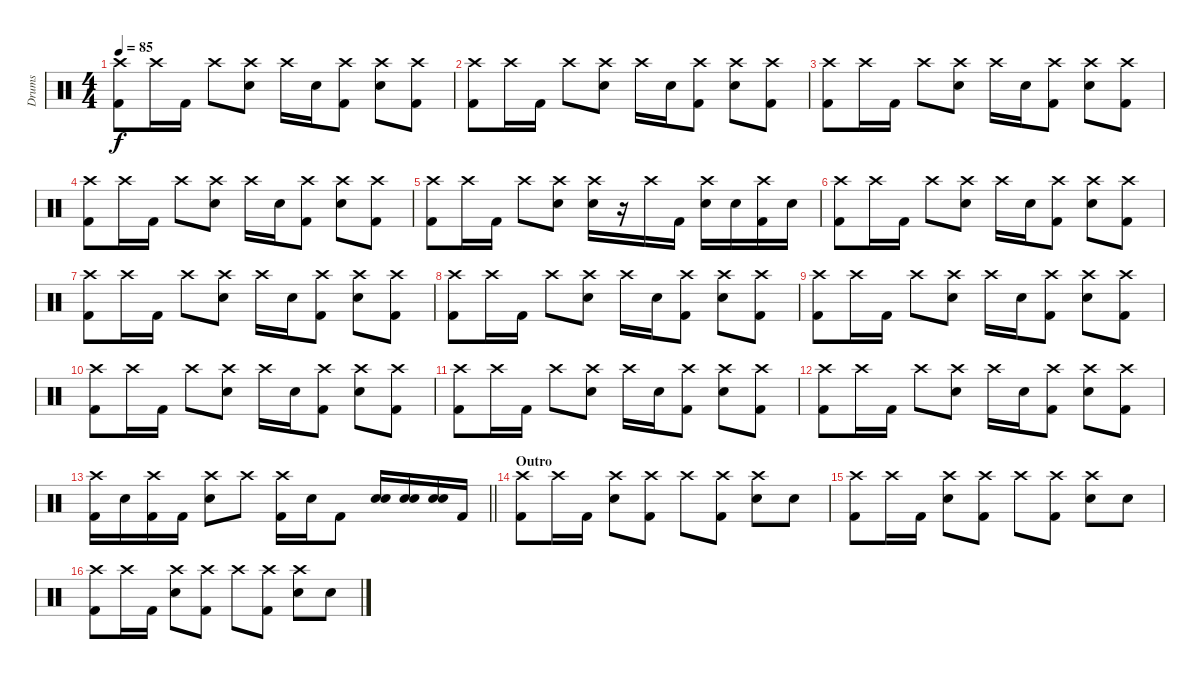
\track ("Drums" "Drums") {instrument percussion}
\staff {score}
\articulation defaults
\ts (4 4)
\tempo 85
\clef neutral
\ks c
("Crash high (hit)" "Kick (hit) 2").8{dy f} "Crash high (hit)".16 "Kick (hit) 2".16 "Crash high (hit)".8 ("Crash high (hit)" "Electric Snare (hit)").8 "Crash high (hit)".16 "Electric Snare (hit)".16 ("Crash high (hit)" "Kick (hit) 2").8 ("Crash high (hit)" "Electric Snare (hit)").8 ("Crash high (hit)" "Kick (hit) 2").8 |
("Crash high (hit)" "Kick (hit) 2").8 "Crash high (hit)".16 "Kick (hit) 2".16 "Crash high (hit)".8 ("Crash high (hit)" "Electric Snare (hit)").8 "Crash high (hit)".16 "Electric Snare (hit)".16 ("Crash high (hit)" "Kick (hit) 2").8 ("Crash high (hit)" "Electric Snare (hit)").8 ("Crash high (hit)" "Kick (hit) 2").8 |
("Crash high (hit)" "Kick (hit) 2").8 "Crash high (hit)".16 "Kick (hit) 2".16 "Crash high (hit)".8 ("Crash high (hit)" "Electric Snare (hit)").8 "Crash high (hit)".16 "Electric Snare (hit)".16 ("Crash high (hit)" "Kick (hit) 2").8 ("Crash high (hit)" "Electric Snare (hit)").8 ("Crash high (hit)" "Kick (hit) 2").8 |
("Crash high (hit)" "Kick (hit) 2").8 "Crash high (hit)".16 "Kick (hit) 2".16 "Crash high (hit)".8 ("Crash high (hit)" "Electric Snare (hit)").8 "Crash high (hit)".16 "Electric Snare (hit)".16 ("Crash high (hit)" "Kick (hit) 2").8 ("Crash high (hit)" "Electric Snare (hit)").8 ("Crash high (hit)" "Kick (hit) 2").8 |
("Crash high (hit)" "Kick (hit) 2").8 "Crash high (hit)".16 "Kick (hit) 2".16 "Crash high (hit)".8 ("Crash high (hit)" "Electric Snare (hit)").8 ("Crash high (hit)" "Electric Snare (hit)").16 r.16 "Crash high (hit)".16 "Kick (hit) 2".16 ("Crash high (hit)" "Electric Snare (hit)").16 "Electric Snare (hit)".16 ("Crash high (hit)" "Kick (hit) 2").16 "Electric Snare (hit)".16 |
("Crash high (hit)" "Kick (hit) 2").8 "Crash high (hit)".16 "Kick (hit) 2".16 "Crash high (hit)".8 ("Crash high (hit)" "Electric Snare (hit)").8 "Crash high (hit)".16 "Electric Snare (hit)".16 ("Crash high (hit)" "Kick (hit) 2").8 ("Crash high (hit)" "Electric Snare (hit)").8 ("Crash high (hit)" "Kick (hit) 2").8 |
("Crash high (hit)" "Kick (hit) 2").8 "Crash high (hit)".16 "Kick (hit) 2".16 "Crash high (hit)".8 ("Crash high (hit)" "Electric Snare (hit)").8 "Crash high (hit)".16 "Electric Snare (hit)".16 ("Crash high (hit)" "Kick (hit) 2").8 ("Crash high (hit)" "Electric Snare (hit)").8 ("Crash high (hit)" "Kick (hit) 2").8 |
("Crash high (hit)" "Kick (hit) 2").8 "Crash high (hit)".16 "Kick (hit) 2".16 "Crash high (hit)".8 ("Crash high (hit)" "Electric Snare (hit)").8 "Crash high (hit)".16 "Electric Snare (hit)".16 ("Crash high (hit)" "Kick (hit) 2").8 ("Crash high (hit)" "Electric Snare (hit)").8 ("Crash high (hit)" "Kick (hit) 2").8 |
("Crash high (hit)" "Kick (hit) 2").8 "Crash high (hit)".16 "Kick (hit) 2".16 "Crash high (hit)".8 ("Crash high (hit)" "Electric Snare (hit)").8 "Crash high (hit)".16 "Electric Snare (hit)".16 ("Crash high (hit)" "Kick (hit) 2").8 ("Crash high (hit)" "Electric Snare (hit)").8 ("Crash high (hit)" "Kick (hit) 2").8 |
("Crash high (hit)" "Kick (hit) 2").8 "Crash high (hit)".16 "Kick (hit) 2".16 "Crash high (hit)".8 ("Crash high (hit)" "Electric Snare (hit)").8 "Crash high (hit)".16 "Electric Snare (hit)".16 ("Crash high (hit)" "Kick (hit) 2").8 ("Crash high (hit)" "Electric Snare (hit)").8 ("Crash high (hit)" "Kick (hit) 2").8 |
("Crash high (hit)" "Kick (hit) 2").8 "Crash high (hit)".16 "Kick (hit) 2".16 "Crash high (hit)".8 ("Crash high (hit)" "Electric Snare (hit)").8 "Crash high (hit)".16 "Electric Snare (hit)".16 ("Crash high (hit)" "Kick (hit) 2").8 ("Crash high (hit)" "Electric Snare (hit)").8 ("Crash high (hit)" "Kick (hit) 2").8 |
("Crash high (hit)" "Kick (hit) 2").8 "Crash high (hit)".16 "Kick (hit) 2".16 "Crash high (hit)".8 ("Crash high (hit)" "Electric Snare (hit)").8 "Crash high (hit)".16 "Electric Snare (hit)".16 ("Crash high (hit)" "Kick (hit) 2").8 ("Crash high (hit)" "Electric Snare (hit)").8 ("Crash high (hit)" "Kick (hit) 2").8 |
\barLineRight lightlight
("Crash high (hit)" "Kick (hit) 2").16 "Electric Snare (hit)".16 ("Crash high (hit)" "Kick (hit) 2").16 "Kick (hit) 2".16 ("Crash high (hit)" "Electric Snare (hit)").8 "Crash high (hit)".8 ("Crash high (hit)" "Kick (hit) 2").16 "Electric Snare (hit)".16 "Kick (hit) 2".8 ("Electric Snare (hit)" "Electric Snare (hit)").16 ("Electric Snare (hit)" "Electric Snare (hit)").16 ("Electric Snare (hit)" "Electric Snare (hit)").16 "Kick (hit) 2".16 |
\section ("" "Outro")
("Crash high (hit)" "Kick (hit) 2").8 "Crash high (hit)".16 "Kick (hit) 2".16 ("Crash high (hit)" "Electric Snare (hit)").8 ("Crash high (hit)" "Kick (hit) 2").8 "Crash high (hit)".8 ("Crash high (hit)" "Kick (hit) 2").8 ("Crash high (hit)" "Electric Snare (hit)").8 "Electric Snare (hit)".8 |
("Crash high (hit)" "Kick (hit) 2").8 "Crash high (hit)".16 "Kick (hit) 2".16 ("Crash high (hit)" "Electric Snare (hit)").8 ("Crash high (hit)" "Kick (hit) 2").8 "Crash high (hit)".8 ("Crash high (hit)" "Kick (hit) 2").8 ("Crash high (hit)" "Electric Snare (hit)").8 "Electric Snare (hit)".8 |
("Crash high (hit)" "Kick (hit) 2").8 "Crash high (hit)".16 "Kick (hit) 2".16 ("Crash high (hit)" "Electric Snare (hit)").8 ("Crash high (hit)" "Kick (hit) 2").8 "Crash high (hit)".8 ("Crash high (hit)" "Kick (hit) 2").8 ("Crash high (hit)" "Electric Snare (hit)").8 "Electric Snare (hit)".8
